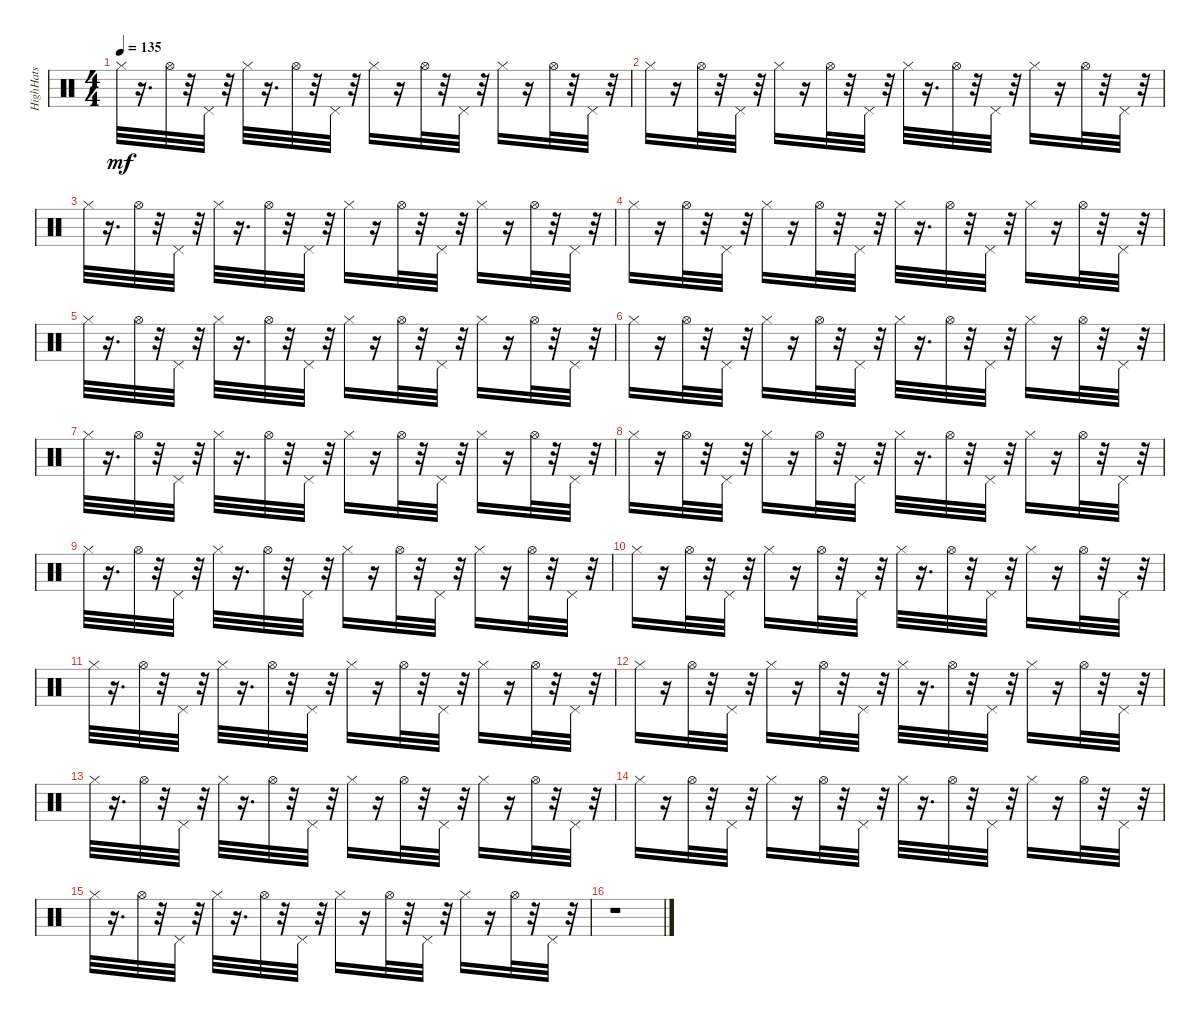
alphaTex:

\track ("HighHats" "HighHats") {instrument percussion}
\staff {score}
\articulation defaults
\ts (4 4)
\tempo 135
\clef neutral
\ks c "Hi-Hat (closed)".32{dy mf}
r.16{d} "Hi-Hat (open)".32 r.32 "Pedal Hi-Hat (hit)".32 r.32 "Hi-Hat (closed)".32 r.16{d} "Hi-Hat (open)".32 r.32 "Pedal Hi-Hat (hit)".32 r.32 "Hi-Hat (closed)".16 r.16 "Hi-Hat (open)".32 r.32 "Pedal Hi-Hat (hit)".32 r.32 "Hi-Hat (closed)".16 r.16 "Hi-Hat (open)".32 r.32 "Pedal Hi-Hat (hit)".32 r.32 |
"Hi-Hat (closed)".16 r.16 "Hi-Hat (open)".32 r.32 "Pedal Hi-Hat (hit)".32 r.32 "Hi-Hat (closed)".16 r.16 "Hi-Hat (open)".32 r.32 "Pedal Hi-Hat (hit)".32 r.32 "Hi-Hat (closed)".32 r.16{d} "Hi-Hat (open)".32 r.32 "Pedal Hi-Hat (hit)".32 r.32 "Hi-Hat (closed)".16 r.16 "Hi-Hat (open)".32 r.32 "Pedal Hi-Hat (hit)".32 r.32 |
"Hi-Hat (closed)".32 r.16{d} "Hi-Hat (open)".32 r.32 "Pedal Hi-Hat (hit)".32 r.32 "Hi-Hat (closed)".32 r.16{d} "Hi-Hat (open)".32 r.32 "Pedal Hi-Hat (hit)".32 r.32 "Hi-Hat (closed)".16 r.16 "Hi-Hat (open)".32 r.32 "Pedal Hi-Hat (hit)".32 r.32 "Hi-Hat (closed)".16 r.16 "Hi-Hat (open)".32 r.32 "Pedal Hi-Hat (hit)".32 r.32 |
"Hi-Hat (closed)".16 r.16 "Hi-Hat (open)".32 r.32 "Pedal Hi-Hat (hit)".32 r.32 "Hi-Hat (closed)".16 r.16 "Hi-Hat (open)".32 r.32 "Pedal Hi-Hat (hit)".32 r.32 "Hi-Hat (closed)".32 r.16{d} "Hi-Hat (open)".32 r.32 "Pedal Hi-Hat (hit)".32 r.32 "Hi-Hat (closed)".16 r.16 "Hi-Hat (open)".32 r.32 "Pedal Hi-Hat (hit)".32 r.32 |
"Hi-Hat (closed)".32 r.16{d} "Hi-Hat (open)".32 r.32 "Pedal Hi-Hat (hit)".32 r.32 "Hi-Hat (closed)".32 r.16{d} "Hi-Hat (open)".32 r.32 "Pedal Hi-Hat (hit)".32 r.32 "Hi-Hat (closed)".16 r.16 "Hi-Hat (open)".32 r.32 "Pedal Hi-Hat (hit)".32 r.32 "Hi-Hat (closed)".16 r.16 "Hi-Hat (open)".32 r.32 "Pedal Hi-Hat (hit)".32 r.32 |
"Hi-Hat (closed)".16 r.16 "Hi-Hat (open)".32 r.32 "Pedal Hi-Hat (hit)".32 r.32 "Hi-Hat (closed)".16 r.16 "Hi-Hat (open)".32 r.32 "Pedal Hi-Hat (hit)".32 r.32 "Hi-Hat (closed)".32 r.16{d} "Hi-Hat (open)".32 r.32 "Pedal Hi-Hat (hit)".32 r.32 "Hi-Hat (closed)".16 r.16 "Hi-Hat (open)".32 r.32 "Pedal Hi-Hat (hit)".32 r.32 |
"Hi-Hat (closed)".32 r.16{d} "Hi-Hat (open)".32 r.32 "Pedal Hi-Hat (hit)".32 r.32 "Hi-Hat (closed)".32 r.16{d} "Hi-Hat (open)".32 r.32 "Pedal Hi-Hat (hit)".32 r.32 "Hi-Hat (closed)".16 r.16 "Hi-Hat (open)".32 r.32 "Pedal Hi-Hat (hit)".32 r.32 "Hi-Hat (closed)".16 r.16 "Hi-Hat (open)".32 r.32 "Pedal Hi-Hat (hit)".32 r.32 |
"Hi-Hat (closed)".16 r.16 "Hi-Hat (open)".32 r.32 "Pedal Hi-Hat (hit)".32 r.32 "Hi-Hat (closed)".16 r.16 "Hi-Hat (open)".32 r.32 "Pedal Hi-Hat (hit)".32 r.32 "Hi-Hat (closed)".32 r.16{d} "Hi-Hat (open)".32 r.32 "Pedal Hi-Hat (hit)".32 r.32 "Hi-Hat (closed)".16 r.16 "Hi-Hat (open)".32 r.32 "Pedal Hi-Hat (hit)".32 r.32 |
"Hi-Hat (closed)".32 r.16{d} "Hi-Hat (open)".32 r.32 "Pedal Hi-Hat (hit)".32 r.32 "Hi-Hat (closed)".32 r.16{d} "Hi-Hat (open)".32 r.32 "Pedal Hi-Hat (hit)".32 r.32 "Hi-Hat (closed)".16 r.16 "Hi-Hat (open)".32 r.32 "Pedal Hi-Hat (hit)".32 r.32 "Hi-Hat (closed)".16 r.16 "Hi-Hat (open)".32 r.32 "Pedal Hi-Hat (hit)".32 r.32 |
"Hi-Hat (closed)".16 r.16 "Hi-Hat (open)".32 r.32 "Pedal Hi-Hat (hit)".32 r.32 "Hi-Hat (closed)".16 r.16 "Hi-Hat (open)".32 r.32 "Pedal Hi-Hat (hit)".32 r.32 "Hi-Hat (closed)".32 r.16{d} "Hi-Hat (open)".32 r.32 "Pedal Hi-Hat (hit)".32 r.32 "Hi-Hat (closed)".16 r.16 "Hi-Hat (open)".32 r.32 "Pedal Hi-Hat (hit)".32 r.32 |
"Hi-Hat (closed)".32 r.16{d} "Hi-Hat (open)".32 r.32 "Pedal Hi-Hat (hit)".32 r.32 "Hi-Hat (closed)".32 r.16{d} "Hi-Hat (open)".32 r.32 "Pedal Hi-Hat (hit)".32 r.32 "Hi-Hat (closed)".16 r.16 "Hi-Hat (open)".32 r.32 "Pedal Hi-Hat (hit)".32 r.32 "Hi-Hat (closed)".16 r.16 "Hi-Hat (open)".32 r.32 "Pedal Hi-Hat (hit)".32 r.32 |
"Hi-Hat (closed)".16 r.16 "Hi-Hat (open)".32 r.32 "Pedal Hi-Hat (hit)".32 r.32 "Hi-Hat (closed)".16 r.16 "Hi-Hat (open)".32 r.32 "Pedal Hi-Hat (hit)".32 r.32 "Hi-Hat (closed)".32 r.16{d} "Hi-Hat (open)".32 r.32 "Pedal Hi-Hat (hit)".32 r.32 "Hi-Hat (closed)".16 r.16 "Hi-Hat (open)".32 r.32 "Pedal Hi-Hat (hit)".32 r.32 |
"Hi-Hat (closed)".32 r.16{d} "Hi-Hat (open)".32 r.32 "Pedal Hi-Hat (hit)".32 r.32 "Hi-Hat (closed)".32 r.16{d} "Hi-Hat (open)".32 r.32 "Pedal Hi-Hat (hit)".32 r.32 "Hi-Hat (closed)".16 r.16 "Hi-Hat (open)".32 r.32 "Pedal Hi-Hat (hit)".32 r.32 "Hi-Hat (closed)".16 r.16 "Hi-Hat (open)".32 r.32 "Pedal Hi-Hat (hit)".32 r.32 |
"Hi-Hat (closed)".16 r.16 "Hi-Hat (open)".32 r.32 "Pedal Hi-Hat (hit)".32 r.32 "Hi-Hat (closed)".16 r.16 "Hi-Hat (open)".32 r.32 "Pedal Hi-Hat (hit)".32 r.32 "Hi-Hat (closed)".32 r.16{d} "Hi-Hat (open)".32 r.32 "Pedal Hi-Hat (hit)".32 r.32 "Hi-Hat (closed)".16 r.16 "Hi-Hat (open)".32 r.32 "Pedal Hi-Hat (hit)".32 r.32 |
"Hi-Hat (closed)".32 r.16{d} "Hi-Hat (open)".32 r.32 "Pedal Hi-Hat (hit)".32 r.32 "Hi-Hat (closed)".32 r.16{d} "Hi-Hat (open)".32 r.32 "Pedal Hi-Hat (hit)".32 r.32 "Hi-Hat (closed)".16 r.16 "Hi-Hat (open)".32 r.32 "Pedal Hi-Hat (hit)".32 r.32 "Hi-Hat (closed)".16 r.16 "Hi-Hat (open)".32 r.32 "Pedal Hi-Hat (hit)".32 r.32 |
r.1
